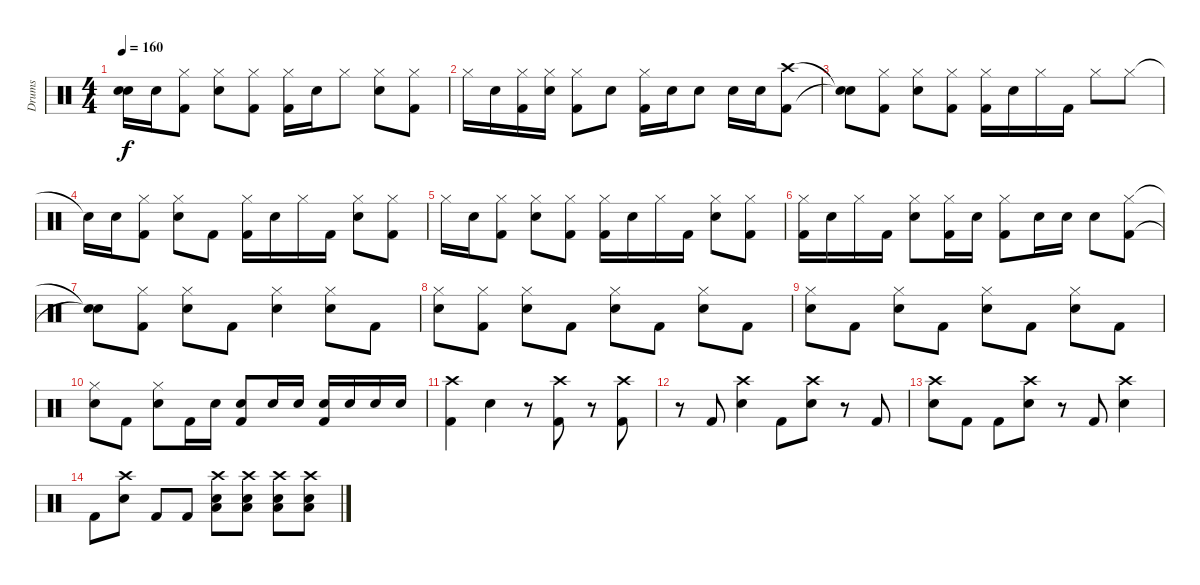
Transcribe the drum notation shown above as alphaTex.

\track ("Drums" "Drums") {instrument percussion}
\staff {score}
\articulation defaults
\ts (4 4)
\tempo 160
\clef neutral
\ks c
("Snare (hit)"{t} "Snare (hit)"{t}).16{dy f} "Snare (hit) 2".16 ("Hi-Hat (closed)" "Kick (hit) 2").8 ("Hi-Hat (closed)" "Snare (hit) 2").8 ("Hi-Hat (closed)" "Kick (hit) 2").8 ("Hi-Hat (closed)" "Kick (hit) 2").16 "Snare (hit) 2".16 "Hi-Hat (closed)".8 ("Hi-Hat (closed)" "Snare (hit) 2").8 ("Hi-Hat (closed)" "Kick (hit) 2").8 |
"Hi-Hat (closed)".16 "Snare (hit) 2".16 ("Hi-Hat (closed)" "Kick (hit) 2").16 ("Hi-Hat (closed)" "Snare (hit) 2").16 ("Hi-Hat (closed)" "Kick (hit) 2").8 "Snare (hit) 2".8 ("Hi-Hat (closed)" "Kick (hit) 2").16 "Snare (hit) 2".16 "Snare (hit) 2".8 "Snare (hit) 2".16 "Snare (hit) 2".16 ("Crash high (hit)" "Kick (hit) 2").8 |
("Snare (hit)"{t} "Snare (hit)"{t}).8 ("Hi-Hat (closed)" "Kick (hit) 2").8 ("Hi-Hat (closed)" "Snare (hit) 2").8 ("Hi-Hat (closed)" "Kick (hit) 2").8 ("Hi-Hat (closed)" "Kick (hit) 2").16 "Snare (hit) 2".16 "Hi-Hat (closed)".16 "Kick (hit) 2".16 "Hi-Hat (closed)".8 "Hi-Hat (closed)".8 |
"Snare (hit)"{t}.16 "Snare (hit) 2".16 ("Hi-Hat (closed)" "Kick (hit) 2").8 ("Hi-Hat (closed)" "Snare (hit) 2").8 "Kick (hit) 2".8 ("Hi-Hat (closed)" "Kick (hit) 2").16 "Snare (hit) 2".16 "Hi-Hat (closed)".16 "Kick (hit) 2".16 ("Hi-Hat (closed)" "Snare (hit) 2").8 ("Hi-Hat (closed)" "Kick (hit) 2").8 |
"Hi-Hat (closed)".16 "Snare (hit) 2".16 ("Hi-Hat (closed)" "Kick (hit) 2").8 ("Hi-Hat (closed)" "Snare (hit) 2").8 ("Hi-Hat (closed)" "Kick (hit) 2").8 ("Hi-Hat (closed)" "Kick (hit) 2").16 "Snare (hit) 2".16 "Hi-Hat (closed)".16 "Kick (hit) 2".16 ("Hi-Hat (closed)" "Snare (hit) 2").8 ("Hi-Hat (closed)" "Kick (hit) 2").8 |
("Hi-Hat (closed)" "Kick (hit) 2").16 "Snare (hit) 2".16 "Hi-Hat (closed)".16 "Kick (hit) 2".16 ("Hi-Hat (closed)" "Snare (hit) 2").8 ("Hi-Hat (closed)" "Kick (hit) 2").16 "Snare (hit) 2".16 ("Hi-Hat (closed)" "Kick (hit) 2").8 "Snare (hit) 2".16 "Snare (hit) 2".16 "Snare (hit) 2".8 ("Hi-Hat (closed)" "Kick (hit) 2").8 |
("Snare (hit)"{t} "Snare (hit)"{t}).8 ("Hi-Hat (closed)" "Kick (hit) 2").8 ("Hi-Hat (closed)" "Snare (hit) 2").8 "Kick (hit) 2".8 ("Hi-Hat (closed)" "Snare (hit) 2").4 ("Hi-Hat (closed)" "Snare (hit) 2").8 "Kick (hit) 2".8 |
("Hi-Hat (closed)" "Snare (hit) 2").8 ("Hi-Hat (closed)" "Kick (hit) 2").8 ("Hi-Hat (closed)" "Snare (hit) 2").8 "Kick (hit) 2".8 ("Hi-Hat (closed)" "Snare (hit) 2").8 "Kick (hit) 2".8 ("Hi-Hat (closed)" "Snare (hit) 2").8 "Kick (hit) 2".8 |
("Hi-Hat (closed)" "Snare (hit) 2").8 "Kick (hit) 2".8 ("Hi-Hat (closed)" "Snare (hit) 2").8 "Kick (hit) 2".8 ("Hi-Hat (closed)" "Snare (hit) 2").8 "Kick (hit) 2".8 ("Hi-Hat (closed)" "Snare (hit) 2").8 "Kick (hit) 2".8 |
("Hi-Hat (closed)" "Snare (hit) 2").8 "Kick (hit) 2".8 ("Hi-Hat (closed)" "Snare (hit) 2").8 "Kick (hit) 2".16 "Snare (hit) 2".16 ("Snare (hit) 2" "Kick (hit) 2").8 "Snare (hit) 2".16 "Snare (hit) 2".16 ("Snare (hit) 2" "Kick (hit) 2").16 "Snare (hit) 2".16 "Snare (hit) 2".16 "Snare (hit) 2".16 |
("Crash high (hit)" "Kick (hit) 2").4 "Snare (hit) 2".4 r.8 ("Crash high (hit)" "Kick (hit) 2").8 r.8 ("Crash high (hit)" "Kick (hit) 2").8 |
r.8 "Kick (hit) 2".8 ("Crash high (hit)" "Snare (hit) 2").4 "Kick (hit) 2".8 ("Crash high (hit)" "Snare (hit) 2").8 r.8 "Kick (hit) 2".8 |
("Crash high (hit)" "Snare (hit) 2").8 "Kick (hit) 2".8 "Kick (hit) 2".8 ("Crash high (hit)" "Snare (hit) 2").8 r.8 "Kick (hit) 2".8 ("Crash high (hit)" "Snare (hit) 2").4 |
"Kick (hit) 2".8 ("Crash high (hit)" "Snare (hit) 2").8 "Kick (hit) 2".8 "Kick (hit) 2".8 ("Crash high (hit)" "Snare (hit) 2" "Low Tom (hit)").8 ("Crash high (hit)" "Snare (hit) 2" "Low Tom (hit)").8 ("Crash high (hit)" "Snare (hit) 2" "Low Tom (hit)").8 ("Crash high (hit)" "Snare (hit) 2" "Low Tom (hit)").8
